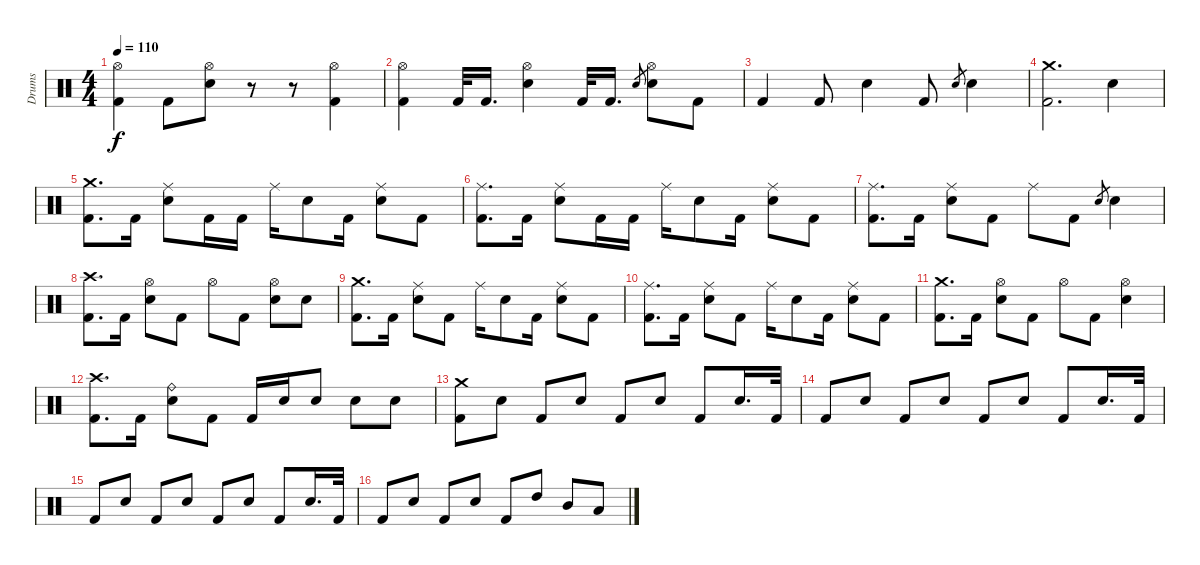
\track ("Drums" "Drums") {instrument percussion}
\staff {score}
\articulation defaults
\ts (4 4)
\tempo 110
\clef neutral
\ks c
("Hi-Hat (open)" "Kick (hit) 2").4{dy f} "Kick (hit) 2".8 ("Snare (hit) 2" "Hi-Hat (open)").8 r.8 r.8 ("Kick (hit) 2" "Hi-Hat (open)").4 |
("Hi-Hat (open)" "Kick (hit) 2").4 "Kick (hit) 2".32 "Kick (hit) 2".16{d} ("Snare (hit) 2" "Hi-Hat (open)").4 "Kick (hit) 2".32 "Kick (hit) 2".16{d} "Electric Snare (hit)".8{gr} ("Snare (hit) 2" "Hi-Hat (open)").8 "Kick (hit) 2".8 |
"Kick (hit) 2".4 "Kick (hit) 2".8 "Snare (hit) 2".4 "Kick (hit) 2".8 "Electric Snare (hit)".8{gr} "Snare (hit) 2".4 |
("Crash medium (hit)" "Kick (hit) 2").2{d} "Electric Snare (hit)".4 |
("Crash medium (hit)" "Kick (hit) 2").8{d} "Kick (hit) 2".16 ("Snare (hit) 2" "Ride (middle)").8 "Kick (hit) 2".16 "Kick (hit) 2".16 "Ride (middle)".16 "Snare (hit) 2".8 "Kick (hit) 2".16 ("Snare (hit) 2" "Ride (middle)").8 "Kick (hit) 2".8 |
("Ride (middle)" "Kick (hit) 2").8{d} "Kick (hit) 2".16 ("Snare (hit) 2" "Ride (middle)").8 "Kick (hit) 2".16 "Kick (hit) 2".16 "Ride (middle)".16 "Snare (hit) 2".8 "Kick (hit) 2".16 ("Snare (hit) 2" "Ride (middle)").8 "Kick (hit) 2".8 |
("Ride (middle)" "Kick (hit) 2").8{d} "Kick (hit) 2".16 ("Snare (hit) 2" "Ride (middle)").8 "Kick (hit) 2".8 "Ride (middle)".8 "Kick (hit) 2".8 "Electric Snare (hit)".8{gr} "Snare (hit) 2".4 |
("Crash high (hit)" "Kick (hit) 2").8{d} "Kick (hit) 2".16 ("Snare (hit) 2" "Hi-Hat (open)").8 "Kick (hit) 2".8 "Hi-Hat (open)".8 "Kick (hit) 2".8 ("Snare (hit) 2" "Hi-Hat (open)").8 "Snare (hit) 2".8 |
("Crash medium (hit)" "Kick (hit) 2").8{d} "Kick (hit) 2".16 ("Snare (hit) 2" "Ride (middle)").8 "Kick (hit) 2".8 "Ride (middle)".16 "Snare (hit) 2".8 "Kick (hit) 2".16 ("Snare (hit) 2" "Ride (middle)").8 "Kick (hit) 2".8 |
("Ride (middle)" "Kick (hit) 2").8{d} "Kick (hit) 2".16 ("Snare (hit) 2" "Ride (middle)").8 "Kick (hit) 2".8 "Ride (middle)".16 "Snare (hit) 2".8 "Kick (hit) 2".16 ("Snare (hit) 2" "Ride (middle)").8 "Kick (hit) 2".8 |
("Crash medium (hit)" "Kick (hit) 2").8{d} "Kick (hit) 2".16 ("Snare (hit) 2" "Hi-Hat (open)").8 "Kick (hit) 2".8 "Hi-Hat (open)".8 "Kick (hit) 2".8 ("Snare (hit) 2" "Hi-Hat (open)").4 |
("Crash high (hit)" "Kick (hit) 2").8{d} "Kick (hit) 2".16 ("Snare (hit) 2" "Ride (bell)").8 "Kick (hit) 2".8 "Kick (hit) 2".16 "Snare (hit) 2".16 "Snare (hit) 2".8 "Snare (hit) 2".8 "Snare (hit) 2".8 |
("Crash medium (hit)" "Kick (hit) 2").8 "Snare (hit) 2".8 "Kick (hit) 2".8 "Snare (hit) 2".8 "Kick (hit) 2".8 "Snare (hit) 2".8 "Kick (hit) 2".8 "Snare (hit) 2".16{d} "Kick (hit) 2".32 |
"Kick (hit) 2".8 "Snare (hit) 2".8 "Kick (hit) 2".8 "Snare (hit) 2".8 "Kick (hit) 2".8 "Snare (hit) 2".8 "Kick (hit) 2".8 "Snare (hit) 2".16{d} "Kick (hit) 2".32 |
"Kick (hit) 2".8 "Snare (hit) 2".8 "Kick (hit) 2".8 "Snare (hit) 2".8 "Kick (hit) 2".8 "Snare (hit) 2".8 "Kick (hit) 2".8 "Snare (hit) 2".16{d} "Kick (hit) 2".32 |
"Kick (hit) 2".8 "Snare (hit) 2".8 "Kick (hit) 2".8 "Snare (hit) 2".8 "Kick (hit) 2".8 "High Tom (hit)".8 "Mid Tom (hit)".8 "Low Tom (hit)".8
